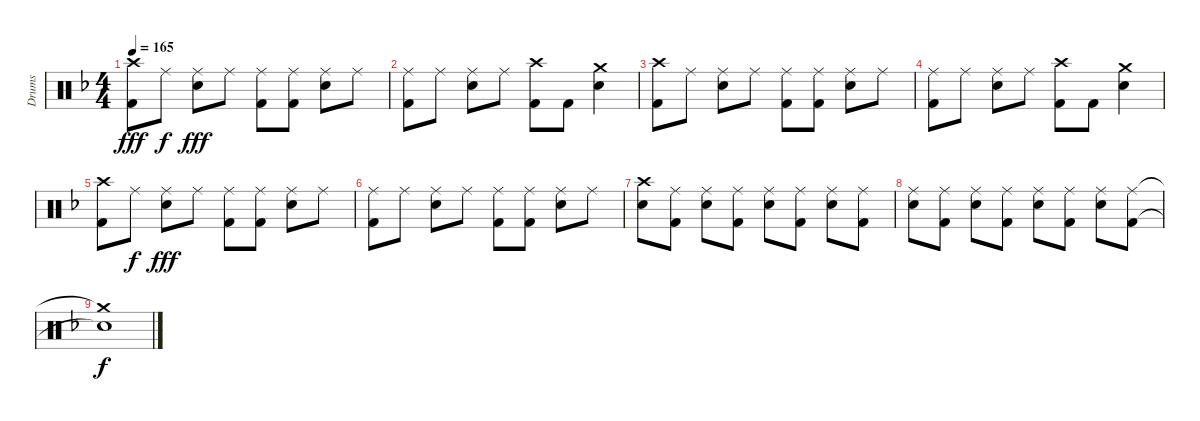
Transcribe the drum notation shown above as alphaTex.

\track ("Drums" "Drums") {instrument percussion}
\staff {score}
\articulation defaults
\ts (4 4)
\tempo 165
\clef neutral
\ks f
("Crash high (hit)" "Kick (hit) 2").8{dy fff} "Ride (middle)".8{dy f} ("Ride (middle)" "Electric Snare (hit)").8{dy fff} "Ride (middle)".8 ("Ride (middle)" "Kick (hit) 2").8 ("Ride (middle)" "Kick (hit) 2").8 ("Ride (middle)" "Electric Snare (hit)").8 "Ride (middle)".8 |
("Ride (middle)" "Kick (hit) 2").8 "Ride (middle)".8 ("Ride (middle)" "Electric Snare (hit)").8 "Ride (middle)".8 ("Crash high (hit)" "Kick (hit) 2").8 "Kick (hit) 2".8 ("Crash medium (hit)" "Electric Snare (hit)").4 |
("Crash high (hit)" "Kick (hit) 2").8 "Ride (middle)".8 ("Ride (middle)" "Electric Snare (hit)").8 "Ride (middle)".8 ("Ride (middle)" "Kick (hit) 2").8 ("Ride (middle)" "Kick (hit) 2").8 ("Ride (middle)" "Electric Snare (hit)").8 "Ride (middle)".8 |
("Ride (middle)" "Kick (hit) 2").8 "Ride (middle)".8 ("Ride (middle)" "Electric Snare (hit)").8 "Ride (middle)".8 ("Crash high (hit)" "Kick (hit) 2").8 "Kick (hit) 2".8 ("Crash medium (hit)" "Electric Snare (hit)").4 |
("Crash high (hit)" "Kick (hit) 2").8 "Ride (middle)".8{dy f} ("Ride (middle)" "Electric Snare (hit)").8{dy fff} "Ride (middle)".8 ("Ride (middle)" "Kick (hit) 2").8 ("Ride (middle)" "Kick (hit) 2").8 ("Ride (middle)" "Electric Snare (hit)").8 "Ride (middle)".8 |
("Ride (middle)" "Kick (hit) 2").8 "Ride (middle)".8 ("Ride (middle)" "Electric Snare (hit)").8 "Ride (middle)".8 ("Ride (middle)" "Kick (hit) 2").8 ("Ride (middle)" "Kick (hit) 2").8 ("Ride (middle)" "Electric Snare (hit)").8 "Ride (middle)".8 |
("Crash high (hit)" "Electric Snare (hit)").8 ("Ride (middle)" "Kick (hit) 2").8 ("Ride (middle)" "Electric Snare (hit)").8 ("Ride (middle)" "Kick (hit) 2").8 ("Ride (middle)" "Electric Snare (hit)").8 ("Ride (middle)" "Kick (hit) 2").8 ("Ride (middle)" "Electric Snare (hit)").8 ("Ride (middle)" "Kick (hit) 2").8 |
("Ride (middle)" "Electric Snare (hit)").8 ("Ride (middle)" "Kick (hit) 2").8 ("Ride (middle)" "Electric Snare (hit)").8 ("Ride (middle)" "Kick (hit) 2").8 ("Ride (middle)" "Electric Snare (hit)").8 ("Ride (middle)" "Kick (hit) 2").8 ("Ride (middle)" "Electric Snare (hit)").8 ("Ride (middle)" "Kick (hit) 2").8 |
("Crash medium (hit)"{t} "Snare (hit)"{t}).1{dy f}
